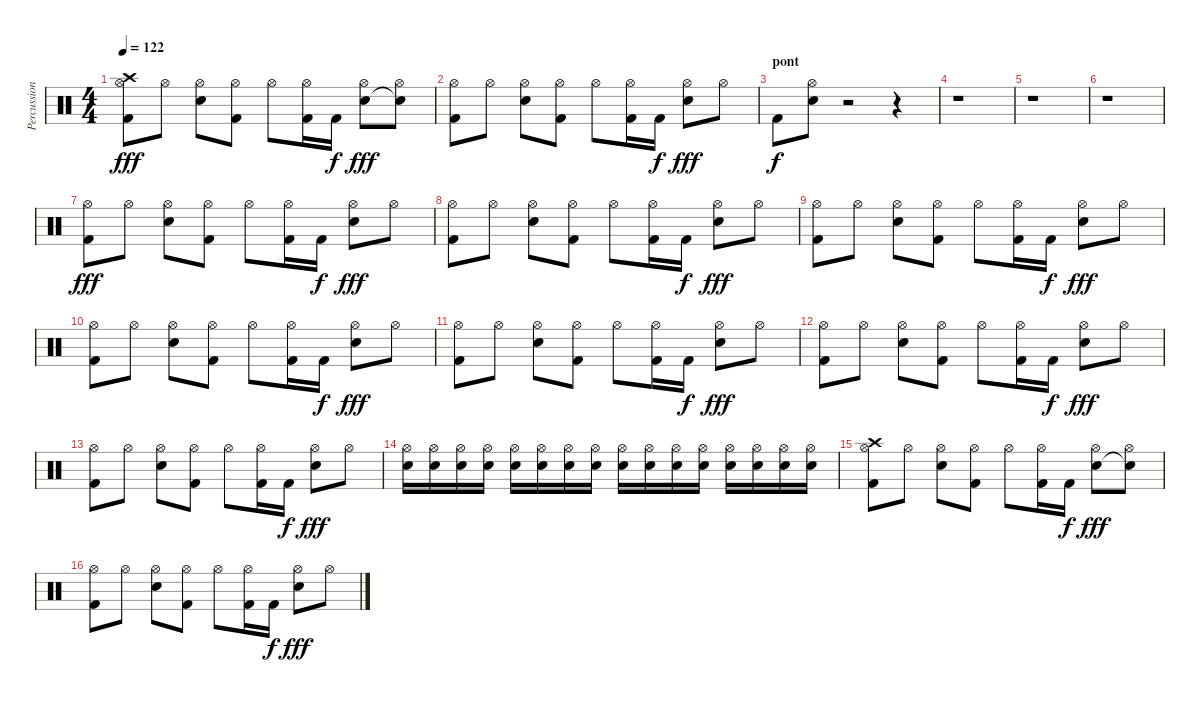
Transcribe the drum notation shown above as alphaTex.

\track ("Percussions" "Percussion") {instrument percussion}
\staff {score}
\articulation defaults
\ts (4 4)
\tempo 122
\clef neutral
\ks c
("Hi-Hat (open)" "Crash high (hit)" "Kick (hit) 2").8{dy fff} "Hi-Hat (open)".8 ("Hi-Hat (open)" "Electric Snare (hit)").8 ("Hi-Hat (open)" "Kick (hit) 2").8 "Hi-Hat (open)".8 ("Hi-Hat (open)" "Kick (hit) 2").16 "Kick (hit) 2".16{dy f} ("Hi-Hat (open)" "Electric Snare (hit)").8{dy fff} ("Hi-Hat (open)" "Snare (hit)"{t}).8 |
("Hi-Hat (open)" "Kick (hit) 2").8 "Hi-Hat (open)".8 ("Hi-Hat (open)" "Electric Snare (hit)").8 ("Hi-Hat (open)" "Kick (hit) 2").8 "Hi-Hat (open)".8 ("Hi-Hat (open)" "Kick (hit) 2").16 "Kick (hit) 2".16{dy f} ("Hi-Hat (open)" "Electric Snare (hit)").8{dy fff} "Hi-Hat (open)".8 |
\section ("" "pont")
"Kick (hit) 2".8{dy f} ("Hi-Hat (open)" "Electric Snare (hit)").8 r.2 r.4 |
r.1 |
r.1 |
r.1 |
("Hi-Hat (open)" "Kick (hit) 2").8{dy fff} "Hi-Hat (open)".8 ("Hi-Hat (open)" "Electric Snare (hit)").8 ("Hi-Hat (open)" "Kick (hit) 2").8 "Hi-Hat (open)".8 ("Hi-Hat (open)" "Kick (hit) 2").16 "Kick (hit) 2".16{dy f} ("Hi-Hat (open)" "Electric Snare (hit)").8{dy fff} "Hi-Hat (open)".8 |
("Hi-Hat (open)" "Kick (hit) 2").8 "Hi-Hat (open)".8 ("Hi-Hat (open)" "Electric Snare (hit)").8 ("Hi-Hat (open)" "Kick (hit) 2").8 "Hi-Hat (open)".8 ("Hi-Hat (open)" "Kick (hit) 2").16 "Kick (hit) 2".16{dy f} ("Hi-Hat (open)" "Electric Snare (hit)").8{dy fff} "Hi-Hat (open)".8 |
("Hi-Hat (open)" "Kick (hit) 2").8 "Hi-Hat (open)".8 ("Hi-Hat (open)" "Electric Snare (hit)").8 ("Hi-Hat (open)" "Kick (hit) 2").8 "Hi-Hat (open)".8 ("Hi-Hat (open)" "Kick (hit) 2").16 "Kick (hit) 2".16{dy f} ("Hi-Hat (open)" "Electric Snare (hit)").8{dy fff} "Hi-Hat (open)".8 |
("Hi-Hat (open)" "Kick (hit) 2").8 "Hi-Hat (open)".8 ("Hi-Hat (open)" "Electric Snare (hit)").8 ("Hi-Hat (open)" "Kick (hit) 2").8 "Hi-Hat (open)".8 ("Hi-Hat (open)" "Kick (hit) 2").16 "Kick (hit) 2".16{dy f} ("Hi-Hat (open)" "Electric Snare (hit)").8{dy fff} "Hi-Hat (open)".8 |
("Hi-Hat (open)" "Kick (hit) 2").8 "Hi-Hat (open)".8 ("Hi-Hat (open)" "Electric Snare (hit)").8 ("Hi-Hat (open)" "Kick (hit) 2").8 "Hi-Hat (open)".8 ("Hi-Hat (open)" "Kick (hit) 2").16 "Kick (hit) 2".16{dy f} ("Hi-Hat (open)" "Electric Snare (hit)").8{dy fff} "Hi-Hat (open)".8 |
("Hi-Hat (open)" "Kick (hit) 2").8 "Hi-Hat (open)".8 ("Hi-Hat (open)" "Electric Snare (hit)").8 ("Hi-Hat (open)" "Kick (hit) 2").8 "Hi-Hat (open)".8 ("Hi-Hat (open)" "Kick (hit) 2").16 "Kick (hit) 2".16{dy f} ("Hi-Hat (open)" "Electric Snare (hit)").8{dy fff} "Hi-Hat (open)".8 |
("Hi-Hat (open)" "Kick (hit) 2").8 "Hi-Hat (open)".8 ("Hi-Hat (open)" "Electric Snare (hit)").8 ("Hi-Hat (open)" "Kick (hit) 2").8 "Hi-Hat (open)".8 ("Hi-Hat (open)" "Kick (hit) 2").16 "Kick (hit) 2".16{dy f} ("Hi-Hat (open)" "Electric Snare (hit)").8{dy fff} "Hi-Hat (open)".8 |
("Hi-Hat (open)" "Electric Snare (hit)").16 ("Hi-Hat (open)" "Electric Snare (hit)").16 ("Hi-Hat (open)" "Electric Snare (hit)").16 ("Hi-Hat (open)" "Electric Snare (hit)").16 ("Hi-Hat (open)" "Electric Snare (hit)").16 ("Hi-Hat (open)" "Electric Snare (hit)").16 ("Hi-Hat (open)" "Electric Snare (hit)").16 ("Hi-Hat (open)" "Electric Snare (hit)").16 ("Hi-Hat (open)" "Electric Snare (hit)").16 ("Hi-Hat (open)" "Electric Snare (hit)").16 ("Hi-Hat (open)" "Electric Snare (hit)").16 ("Hi-Hat (open)" "Electric Snare (hit)").16 ("Hi-Hat (open)" "Electric Snare (hit)").16 ("Hi-Hat (open)" "Electric Snare (hit)").16 ("Hi-Hat (open)" "Electric Snare (hit)").16 ("Hi-Hat (open)" "Electric Snare (hit)").16 |
("Hi-Hat (open)" "Crash high (hit)" "Kick (hit) 2").8 "Hi-Hat (open)".8 ("Hi-Hat (open)" "Electric Snare (hit)").8 ("Hi-Hat (open)" "Kick (hit) 2").8 "Hi-Hat (open)".8 ("Hi-Hat (open)" "Kick (hit) 2").16 "Kick (hit) 2".16{dy f} ("Hi-Hat (open)" "Electric Snare (hit)").8{dy fff} ("Hi-Hat (open)" "Snare (hit)"{t}).8 |
("Hi-Hat (open)" "Kick (hit) 2").8 "Hi-Hat (open)".8 ("Hi-Hat (open)" "Electric Snare (hit)").8 ("Hi-Hat (open)" "Kick (hit) 2").8 "Hi-Hat (open)".8 ("Hi-Hat (open)" "Kick (hit) 2").16 "Kick (hit) 2".16{dy f} ("Hi-Hat (open)" "Electric Snare (hit)").8{dy fff} "Hi-Hat (open)".8
